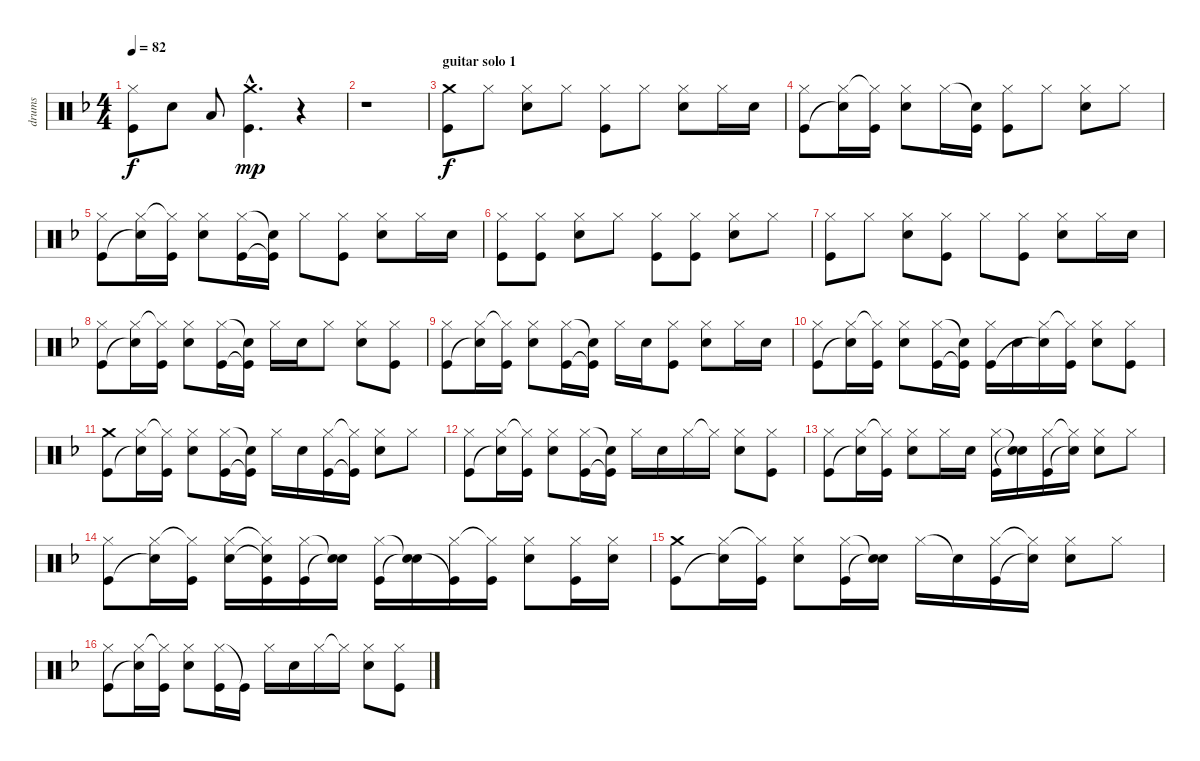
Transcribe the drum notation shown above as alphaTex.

\track ("drums" "drums") {instrument percussion}
\staff {score}
\articulation defaults
\ts (4 4)
\tempo 82
\clef neutral
\ks f
("Hi-Hat (closed)" "Kick (hit)").8{dy f} "Snare (hit) 2".8 "Low Tom (hit)".8 ("Crash medium (hit)"{hac} "Kick (hit)"{hac}).4{d dy mp} r.4 |
r.1 |
\section ("" "guitar solo 1")
("Crash medium (hit)" "Kick (hit)").8{dy f volume 13} "Hi-Hat (closed)".8 ("Hi-Hat (closed)" "Snare (hit) 2").8 "Hi-Hat (closed)".8 ("Hi-Hat (closed)" "Kick (hit)").8 "Hi-Hat (closed)".8 ("Hi-Hat (closed)" "Snare (hit) 2").8 "Hi-Hat (closed)".16 "Snare (hit) 2".16 |
("Hi-Hat (closed)" "Kick (hit)").8 ("Hi-Hat (closed)" "Snare (hit)"{t}).16 ("Hi-Hat (closed)"{t} "Kick (hit)").16 ("Hi-Hat (closed)" "Snare (hit) 2").8 "Hi-Hat (closed)".16 ("Snare (hit)"{t} "Kick (hit)").16 ("Hi-Hat (closed)" "Kick (hit)").8 "Hi-Hat (closed)".8 ("Hi-Hat (closed)" "Snare (hit) 2").8 "Hi-Hat (closed)".8 |
("Hi-Hat (closed)" "Kick (hit)").8 ("Hi-Hat (closed)" "Snare (hit)"{t}).16 ("Hi-Hat (closed)"{t} "Kick (hit)").16 ("Hi-Hat (closed)" "Snare (hit) 2").8 ("Hi-Hat (closed)" "Kick (hit)").16 ("Snare (hit)"{t} "Kick (hit)"{t}).16 "Hi-Hat (closed)".8 ("Hi-Hat (closed)" "Kick (hit)").8 ("Hi-Hat (closed)" "Snare (hit) 2").8 "Hi-Hat (closed)".16 "Snare (hit) 2".16 |
("Hi-Hat (closed)" "Kick (hit)").8 ("Hi-Hat (closed)" "Kick (hit)").8 ("Hi-Hat (closed)" "Snare (hit) 2").8 "Hi-Hat (closed)".8 ("Hi-Hat (closed)" "Kick (hit)").8 ("Hi-Hat (closed)" "Kick (hit)").8 ("Hi-Hat (closed)" "Snare (hit) 2").8 "Hi-Hat (closed)".8 |
("Hi-Hat (closed)" "Kick (hit)").8 "Hi-Hat (closed)".8 ("Hi-Hat (closed)" "Snare (hit) 2").8 ("Hi-Hat (closed)" "Kick (hit)").8 "Hi-Hat (closed)".8 ("Hi-Hat (closed)" "Kick (hit)").8 ("Hi-Hat (closed)" "Snare (hit) 2").8 "Hi-Hat (closed)".16 "Snare (hit) 2".16 |
("Hi-Hat (closed)" "Kick (hit)").8 ("Hi-Hat (closed)" "Snare (hit)"{t}).16 ("Hi-Hat (closed)"{t} "Kick (hit)").16 ("Hi-Hat (closed)" "Snare (hit) 2").8 ("Hi-Hat (closed)" "Kick (hit)").16 ("Snare (hit)"{t} "Kick (hit)"{t}).16 "Hi-Hat (closed)".16 "Snare (hit) 2".16 "Hi-Hat (closed)".8 ("Hi-Hat (closed)" "Snare (hit) 2").8 ("Hi-Hat (closed)" "Kick (hit)").8 |
("Hi-Hat (closed)" "Kick (hit)").8 ("Hi-Hat (closed)" "Snare (hit)"{t}).16 ("Hi-Hat (closed)"{t} "Kick (hit)").16 ("Hi-Hat (closed)" "Snare (hit) 2").8 ("Hi-Hat (closed)" "Kick (hit)").16 ("Snare (hit)"{t} "Kick (hit)"{t}).16 "Hi-Hat (closed)".16 "Snare (hit) 2".16 ("Hi-Hat (closed)" "Kick (hit)").8 ("Hi-Hat (closed)" "Snare (hit) 2").8 "Hi-Hat (closed)".16 "Snare (hit) 2".16 |
("Hi-Hat (closed)" "Kick (hit)").8 ("Hi-Hat (closed)" "Snare (hit)"{t}).16 ("Hi-Hat (closed)"{t} "Kick (hit)").16 ("Hi-Hat (closed)" "Snare (hit) 2").8 ("Hi-Hat (closed)" "Kick (hit)").16 ("Snare (hit)"{t} "Kick (hit)"{t}).16 ("Hi-Hat (closed)" "Kick (hit)").16 "Snare (hit) 2".16 ("Hi-Hat (closed)" "Snare (hit)"{t}).16 ("Hi-Hat (closed)"{t} "Kick (hit)").16 ("Hi-Hat (closed)" "Snare (hit) 2").8 ("Hi-Hat (closed)" "Kick (hit)").8 |
("Crash medium (hit)" "Kick (hit)").8 ("Hi-Hat (closed)" "Snare (hit)"{t}).16 ("Hi-Hat (closed)"{t} "Kick (hit)").16 ("Hi-Hat (closed)" "Snare (hit) 2").8 ("Hi-Hat (closed)" "Kick (hit)").16 ("Snare (hit)"{t} "Kick (hit)"{t}).16 "Hi-Hat (closed)".16 "Snare (hit) 2".16 ("Hi-Hat (closed)" "Kick (hit)").16 ("Hi-Hat (closed)"{t} "Kick (hit)"{t}).16 ("Hi-Hat (closed)" "Snare (hit) 2").8 "Hi-Hat (closed)".8 |
("Hi-Hat (closed)" "Kick (hit)").8 ("Hi-Hat (closed)" "Snare (hit)"{t}).16 ("Hi-Hat (closed)"{t} "Kick (hit)").16 ("Hi-Hat (closed)" "Snare (hit) 2").8 ("Hi-Hat (closed)" "Kick (hit)").16 ("Snare (hit)"{t} "Kick (hit)"{t}).16 "Hi-Hat (closed)".16 "Snare (hit) 2".16 "Hi-Hat (closed)".16 "Hi-Hat (closed)"{t}.16 ("Hi-Hat (closed)" "Snare (hit) 2").8 ("Hi-Hat (closed)" "Kick (hit)").8 |
("Hi-Hat (closed)" "Kick (hit)").8 ("Hi-Hat (closed)" "Snare (hit)"{t}).16 ("Hi-Hat (closed)"{t} "Kick (hit)").16 ("Hi-Hat (closed)" "Snare (hit) 2").8 "Hi-Hat (closed)".16 "Snare (hit) 2".16 ("Hi-Hat (closed)" "Kick (hit)").16 ("Snare (hit)"{t} "Snare (hit)"{t}).16 ("Hi-Hat (closed)" "Kick (hit)").16 ("Hi-Hat (closed)"{t} "Snare (hit)"{t}).16 ("Hi-Hat (closed)" "Snare (hit) 2").8 "Hi-Hat (closed)".8 |
("Hi-Hat (closed)" "Kick (hit)").8 ("Hi-Hat (closed)" "Snare (hit)"{t}).16 ("Hi-Hat (closed)"{t} "Kick (hit)").16 ("Hi-Hat (closed)" "Snare (hit) 2").16 ("Hi-Hat (closed)"{t} "Snare (hit) 2"{t} "Kick (hit)").16 ("Hi-Hat (closed)" "Kick (hit)").16 ("Snare (hit)"{t} "Snare (hit)"{t}).16 ("Hi-Hat (closed)" "Kick (hit)").16 ("Snare (hit)"{t} "Snare (hit)"{t}).16 ("Hi-Hat (closed)" "Kick (hit)"{t}).16 ("Hi-Hat (closed)"{t} "Kick (hit)").16 ("Hi-Hat (closed)" "Snare (hit) 2").8 ("Hi-Hat (closed)" "Kick (hit)").16 ("Hi-Hat (closed)" "Snare (hit) 2").16 |
("Crash medium (hit)" "Kick (hit)").8 ("Hi-Hat (closed)" "Snare (hit)"{t}).16 ("Hi-Hat (closed)"{t} "Kick (hit)").16 ("Hi-Hat (closed)" "Snare (hit) 2").8 ("Hi-Hat (closed)" "Kick (hit)").16 ("Snare (hit)"{t} "Snare (hit)"{t}).16 "Hi-Hat (closed)".16 "Snare (hit)"{t}.16 ("Hi-Hat (closed)" "Kick (hit)").16 ("Hi-Hat (closed)"{t} "Snare (hit)"{t}).16 ("Hi-Hat (closed)" "Snare (hit) 2").8 "Hi-Hat (closed)".8 |
("Hi-Hat (closed)" "Kick (hit)").8 ("Hi-Hat (closed)" "Snare (hit)"{t}).16 ("Hi-Hat (closed)"{t} "Kick (hit)").16 ("Hi-Hat (closed)" "Snare (hit) 2").8 ("Hi-Hat (closed)" "Kick (hit)").16 "Kick (hit)"{t}.16 "Hi-Hat (closed)".16 "Snare (hit) 2".16 "Hi-Hat (closed)".16 "Hi-Hat (closed)"{t}.16 ("Hi-Hat (closed)" "Snare (hit) 2").8 ("Hi-Hat (closed)" "Kick (hit)").8
